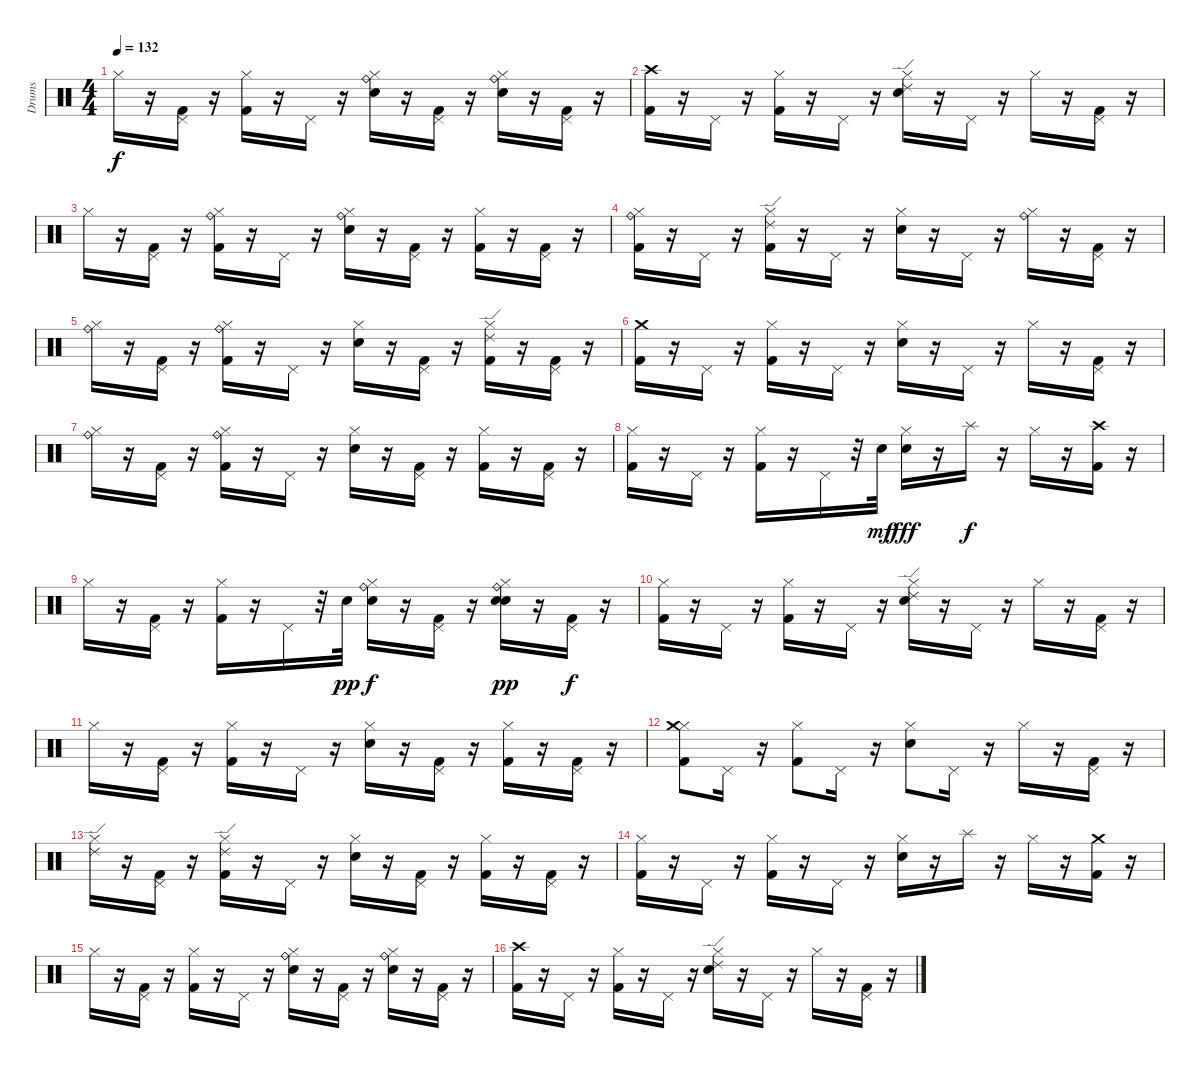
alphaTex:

\track ("Drums" "Drums") {instrument percussion}
\staff {score}
\articulation defaults
\ts (4 4)
\tempo 132
\clef neutral
\ks c "Hi-Hat (closed)".16{dy f}
r.16 ("Pedal Hi-Hat (hit)" "Kick (hit) 2").16 r.16 ("Hi-Hat (closed)" "Kick (hit) 2").16 r.16 "Pedal Hi-Hat (hit)".16 r.16 ("Ride (bell)" "Hi-Hat (closed)" "Electric Snare (hit)").16 r.16 ("Pedal Hi-Hat (hit)" "Kick (hit) 2").16 r.16 ("Ride (bell)" "Hi-Hat (closed)" "Electric Snare (hit)").16 r.16 ("Pedal Hi-Hat (hit)" "Kick (hit) 2").16 r.16 |
("Crash high (hit)" "Kick (hit) 2").16 r.16 "Pedal Hi-Hat (hit)".16 r.16 ("Hi-Hat (closed)" "Kick (hit) 2").16 r.16 "Pedal Hi-Hat (hit)".16 r.16 ("Ride (edge) 2" "Hi-Hat (closed)" "Electric Snare (hit)").16 r.16 "Pedal Hi-Hat (hit)".16 r.16 "Hi-Hat (closed)".16 r.16 ("Pedal Hi-Hat (hit)" "Kick (hit) 2").16 r.16 |
"Hi-Hat (closed)".16 r.16 ("Pedal Hi-Hat (hit)" "Kick (hit) 2").16 r.16 ("Ride (bell)" "Hi-Hat (closed)" "Kick (hit) 2").16 r.16 "Pedal Hi-Hat (hit)".16 r.16 ("Ride (bell)" "Hi-Hat (closed)" "Electric Snare (hit)").16 r.16 ("Pedal Hi-Hat (hit)" "Kick (hit) 2").16 r.16 ("Hi-Hat (closed)" "Kick (hit) 2").16 r.16 ("Pedal Hi-Hat (hit)" "Kick (hit) 2").16 r.16 |
("Ride (bell)" "Hi-Hat (closed)" "Kick (hit) 2").16 r.16 "Pedal Hi-Hat (hit)".16 r.16 ("Ride (edge) 2" "Hi-Hat (closed)" "Kick (hit) 2").16 r.16 "Pedal Hi-Hat (hit)".16 r.16 ("Hi-Hat (closed)" "Electric Snare (hit)").16 r.16 "Pedal Hi-Hat (hit)".16 r.16 ("Ride (bell)" "Hi-Hat (closed)").16 r.16 ("Pedal Hi-Hat (hit)" "Kick (hit) 2").16 r.16 |
("Ride (bell)" "Hi-Hat (closed)").16 r.16 ("Pedal Hi-Hat (hit)" "Kick (hit) 2").16 r.16 ("Ride (bell)" "Hi-Hat (closed)" "Kick (hit) 2").16 r.16 "Pedal Hi-Hat (hit)".16 r.16 ("Hi-Hat (closed)" "Electric Snare (hit)").16 r.16 ("Pedal Hi-Hat (hit)" "Kick (hit) 2").16 r.16 ("Ride (edge) 2" "Hi-Hat (closed)" "Kick (hit) 2").16 r.16 ("Pedal Hi-Hat (hit)" "Kick (hit) 2").16 r.16 |
("Crash medium (hit)" "Kick (hit) 2").16 r.16 "Pedal Hi-Hat (hit)".16 r.16 ("Hi-Hat (closed)" "Kick (hit) 2").16 r.16 "Pedal Hi-Hat (hit)".16 r.16 ("Hi-Hat (closed)" "Electric Snare (hit)").16 r.16 "Pedal Hi-Hat (hit)".16 r.16 "Hi-Hat (closed)".16 r.16 ("Pedal Hi-Hat (hit)" "Kick (hit) 2").16 r.16 |
("Ride (bell)" "Hi-Hat (closed)").16 r.16 ("Pedal Hi-Hat (hit)" "Kick (hit) 2").16 r.16 ("Ride (bell)" "Hi-Hat (closed)" "Kick (hit) 2").16 r.16 "Pedal Hi-Hat (hit)".16 r.16 ("Hi-Hat (closed)" "Electric Snare (hit)").16 r.16 ("Pedal Hi-Hat (hit)" "Kick (hit) 2").16 r.16 ("Hi-Hat (closed)" "Kick (hit) 2").16 r.16 ("Pedal Hi-Hat (hit)" "Kick (hit) 2").16 r.16 |
("Hi-Hat (closed)" "Kick (hit) 2").16 r.16 "Pedal Hi-Hat (hit)".16 r.16 ("Hi-Hat (closed)" "Kick (hit) 2").16 r.16 "Pedal Hi-Hat (hit)".16 r.32 "Electric Snare (hit)".32{dy mf} ("Hi-Hat (closed)" "Electric Snare (hit)").16{dy fff} r.16 "Splash (hit)".16{dy f} r.16 "Hi-Hat (closed)".16 r.16 ("Crash high (hit)" "Kick (hit) 2").16 r.16 |
"Hi-Hat (closed)".16 r.16 ("Pedal Hi-Hat (hit)" "Kick (hit) 2").16 r.16 ("Hi-Hat (closed)" "Kick (hit) 2").16 r.16 "Pedal Hi-Hat (hit)".16 r.32 "Snare (hit) 2".32{dy pp} ("Ride (bell)" "Hi-Hat (closed)" "Electric Snare (hit)").16{dy f} r.16 ("Pedal Hi-Hat (hit)" "Kick (hit) 2").16 r.16 ("Snare (hit) 2" "Ride (bell)" "Hi-Hat (closed)" "Electric Snare (hit)").16{dy pp} r.16 ("Pedal Hi-Hat (hit)" "Kick (hit) 2").16{dy f} r.16 |
("Hi-Hat (closed)" "Kick (hit) 2").16 r.16 "Pedal Hi-Hat (hit)".16 r.16 ("Hi-Hat (closed)" "Kick (hit) 2").16 r.16 "Pedal Hi-Hat (hit)".16 r.16 ("Ride (edge) 2" "Hi-Hat (closed)" "Electric Snare (hit)").16 r.16 "Pedal Hi-Hat (hit)".16 r.16 "Hi-Hat (closed)".16 r.16 ("Pedal Hi-Hat (hit)" "Kick (hit) 2").16 r.16 |
"Hi-Hat (closed)".16 r.16 ("Pedal Hi-Hat (hit)" "Kick (hit) 2").16 r.16 ("Hi-Hat (closed)" "Kick (hit) 2").16 r.16 "Pedal Hi-Hat (hit)".16 r.16 ("Hi-Hat (closed)" "Electric Snare (hit)").16 r.16 ("Pedal Hi-Hat (hit)" "Kick (hit) 2").16 r.16 ("Hi-Hat (closed)" "Kick (hit) 2").16 r.16 ("Pedal Hi-Hat (hit)" "Kick (hit) 2").16 r.16 |
("Hi-Hat (closed)" "Kick (hit) 2" "Crash medium (hit)").8 "Pedal Hi-Hat (hit)".16 r.16 ("Hi-Hat (closed)" "Kick (hit) 2").8 "Pedal Hi-Hat (hit)".16 r.16 ("Hi-Hat (closed)" "Electric Snare (hit)").8 "Pedal Hi-Hat (hit)".16 r.16 "Hi-Hat (closed)".16 r.16 ("Pedal Hi-Hat (hit)" "Kick (hit) 2").16 r.16 |
("Ride (edge) 2" "Hi-Hat (closed)").16 r.16 ("Pedal Hi-Hat (hit)" "Kick (hit) 2").16 r.16 ("Ride (edge) 2" "Hi-Hat (closed)" "Kick (hit) 2").16 r.16 "Pedal Hi-Hat (hit)".16 r.16 ("Hi-Hat (closed)" "Electric Snare (hit)").16 r.16 ("Pedal Hi-Hat (hit)" "Kick (hit) 2").16 r.16 ("Hi-Hat (closed)" "Kick (hit) 2").16 r.16 ("Pedal Hi-Hat (hit)" "Kick (hit) 2").16 r.16 |
("Hi-Hat (closed)" "Kick (hit) 2").16 r.16 "Pedal Hi-Hat (hit)".16 r.16 ("Hi-Hat (closed)" "Kick (hit) 2").16 r.16 "Pedal Hi-Hat (hit)".16 r.16 ("Hi-Hat (closed)" "Electric Snare (hit)").16 r.16 "Splash (hit)".16 r.16 "Hi-Hat (closed)".16 r.16 ("Crash medium (hit)" "Kick (hit) 2").16 r.16 |
"Hi-Hat (closed)".16 r.16 ("Pedal Hi-Hat (hit)" "Kick (hit) 2").16 r.16 ("Hi-Hat (closed)" "Kick (hit) 2").16 r.16 "Pedal Hi-Hat (hit)".16 r.16 ("Ride (bell)" "Hi-Hat (closed)" "Electric Snare (hit)").16 r.16 ("Pedal Hi-Hat (hit)" "Kick (hit) 2").16 r.16 ("Ride (bell)" "Hi-Hat (closed)" "Electric Snare (hit)").16 r.16 ("Pedal Hi-Hat (hit)" "Kick (hit) 2").16 r.16 |
("Crash high (hit)" "Kick (hit) 2").16 r.16 "Pedal Hi-Hat (hit)".16 r.16 ("Hi-Hat (closed)" "Kick (hit) 2").16 r.16 "Pedal Hi-Hat (hit)".16 r.16 ("Ride (edge) 2" "Hi-Hat (closed)" "Electric Snare (hit)").16 r.16 "Pedal Hi-Hat (hit)".16 r.16 "Hi-Hat (closed)".16 r.16 ("Pedal Hi-Hat (hit)" "Kick (hit) 2").16 r.16
